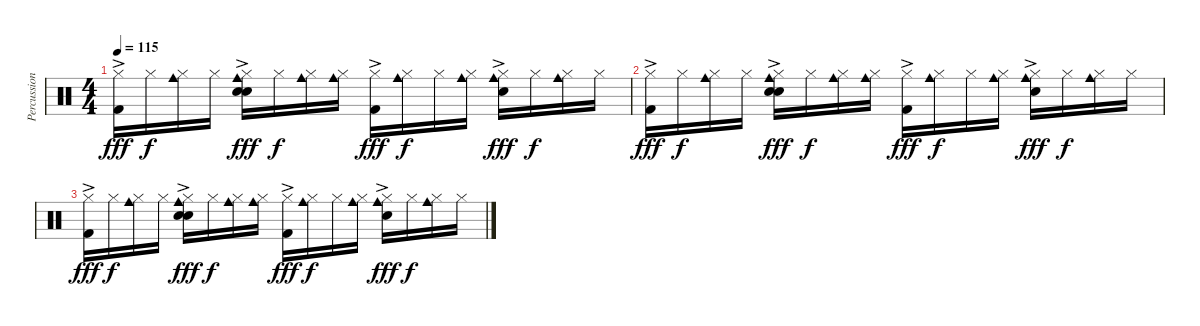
\track ("Percussion" "Percussion") {instrument percussion}
\staff {score}
\articulation defaults
\ts (4 4)
\tempo 115
\clef neutral
\ks c
("Hi-Hat (closed)"{ac} "Kick (hit) 2").16{dy fff} "Hi-Hat (closed)".16{dy f} ("Hi-Hat (closed)" "Cowbell medium (hit)").16 "Hi-Hat (closed)".16 ("Hi-Hat (closed)"{ac} "Snare (hit) 2" "Cowbell medium (hit)" "Hand Clap (hit)").16{dy fff volume 5} "Hi-Hat (closed)".16{dy f} ("Hi-Hat (closed)" "Cowbell medium (hit)").16 ("Hi-Hat (closed)" "Cowbell medium (hit)").16 ("Hi-Hat (closed)"{ac} "Kick (hit) 2").16{dy fff} ("Hi-Hat (closed)" "Cowbell medium (hit)").16{dy f} "Hi-Hat (closed)".16 ("Hi-Hat (closed)" "Cowbell medium (hit)").16 ("Hi-Hat (closed)"{ac} "Snare (hit) 2" "Cowbell medium (hit)").16{dy fff} "Hi-Hat (closed)".16{dy f} ("Hi-Hat (closed)" "Cowbell medium (hit)").16 "Hi-Hat (closed)".16 |
("Hi-Hat (closed)"{ac} "Kick (hit) 2").16{dy fff} "Hi-Hat (closed)".16{dy f} ("Hi-Hat (closed)" "Cowbell medium (hit)").16 "Hi-Hat (closed)".16 ("Hi-Hat (closed)"{ac} "Snare (hit) 2" "Cowbell medium (hit)" "Hand Clap (hit)").16{dy fff} "Hi-Hat (closed)".16{dy f} ("Hi-Hat (closed)" "Cowbell medium (hit)").16{volume 3} ("Hi-Hat (closed)" "Cowbell medium (hit)").16 ("Hi-Hat (closed)"{ac} "Kick (hit) 2").16{dy fff} ("Hi-Hat (closed)" "Cowbell medium (hit)").16{dy f} "Hi-Hat (closed)".16 ("Hi-Hat (closed)" "Cowbell medium (hit)").16 ("Hi-Hat (closed)"{ac} "Snare (hit) 2" "Cowbell medium (hit)").16{dy fff} "Hi-Hat (closed)".16{dy f} ("Hi-Hat (closed)" "Cowbell medium (hit)").16 "Hi-Hat (closed)".16 |
("Hi-Hat (closed)"{ac} "Kick (hit) 2").16{dy fff} "Hi-Hat (closed)".16{dy f} ("Hi-Hat (closed)" "Cowbell medium (hit)").16 "Hi-Hat (closed)".16 ("Hi-Hat (closed)"{ac} "Snare (hit) 2" "Cowbell medium (hit)" "Hand Clap (hit)").16{dy fff} "Hi-Hat (closed)".16{dy f} ("Hi-Hat (closed)" "Cowbell medium (hit)").16{volume 1} ("Hi-Hat (closed)" "Cowbell medium (hit)").16 ("Hi-Hat (closed)"{ac} "Kick (hit) 2").16{dy fff} ("Hi-Hat (closed)" "Cowbell medium (hit)").16{dy f} "Hi-Hat (closed)".16 ("Hi-Hat (closed)" "Cowbell medium (hit)").16 ("Hi-Hat (closed)"{ac} "Snare (hit) 2" "Cowbell medium (hit)").16{dy fff} "Hi-Hat (closed)".16{dy f} ("Hi-Hat (closed)" "Cowbell medium (hit)").16{volume 0} "Hi-Hat (closed)".16
